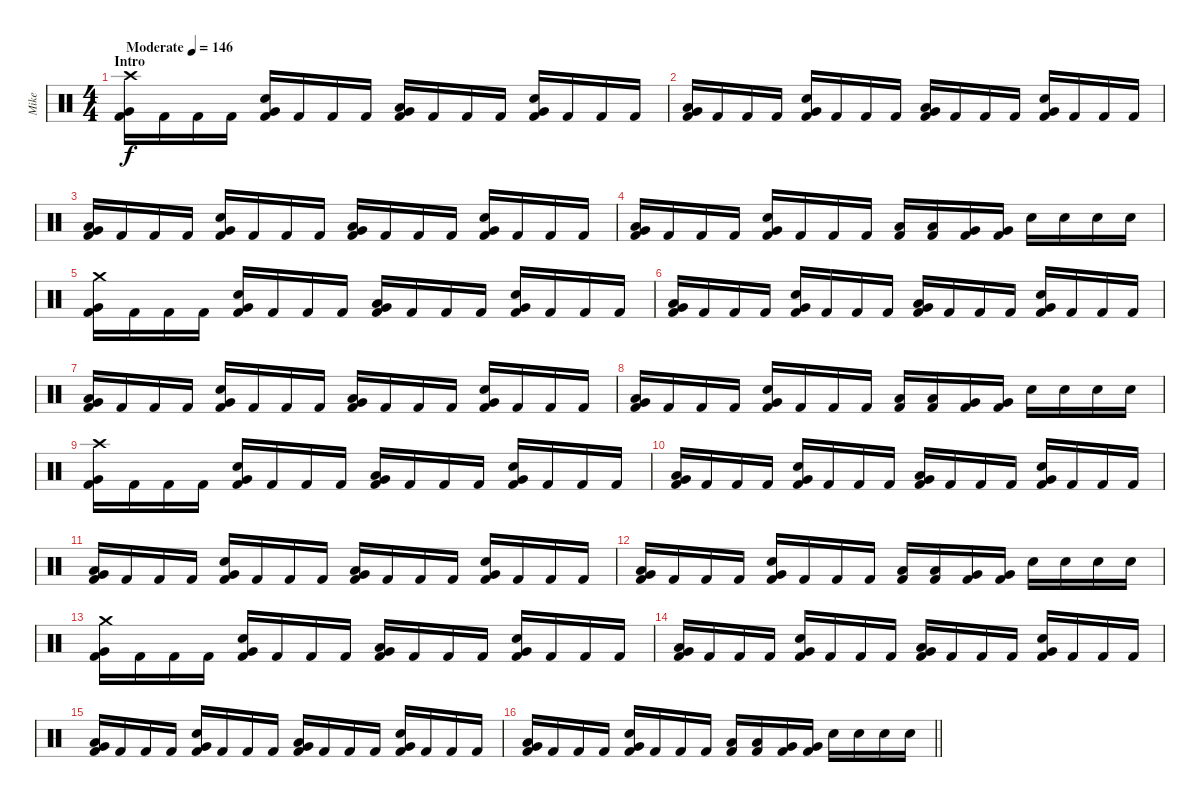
\track ("Mike" "Mike") {instrument percussion}
\staff {score}
\articulation defaults
\ts (4 4)
\section ("" "Intro")
\tempo (146 "Moderate")
\clef neutral
\ks c
("Crash high (hit)" "Very Low Tom (hit)" "Kick (hit) 2").16{dy f} "Kick (hit) 2".16 "Kick (hit) 2".16 "Kick (hit) 2".16 ("Snare (hit) 2" "Very Low Tom (hit)" "Kick (hit) 2").16 "Kick (hit) 2".16 "Kick (hit) 2".16 "Kick (hit) 2".16 ("Low Tom (hit)" "Very Low Tom (hit)" "Kick (hit) 2").16 "Kick (hit) 2".16 "Kick (hit) 2".16 "Kick (hit) 2".16 ("Snare (hit) 2" "Very Low Tom (hit)" "Kick (hit) 2").16 "Kick (hit) 2".16 "Kick (hit) 2".16 "Kick (hit) 2".16 |
("Low Tom (hit)" "Very Low Tom (hit)" "Kick (hit) 2").16 "Kick (hit) 2".16 "Kick (hit) 2".16 "Kick (hit) 2".16 ("Snare (hit) 2" "Very Low Tom (hit)" "Kick (hit) 2").16 "Kick (hit) 2".16 "Kick (hit) 2".16 "Kick (hit) 2".16 ("Low Tom (hit)" "Very Low Tom (hit)" "Kick (hit) 2").16 "Kick (hit) 2".16 "Kick (hit) 2".16 "Kick (hit) 2".16 ("Snare (hit) 2" "Very Low Tom (hit)" "Kick (hit) 2").16 "Kick (hit) 2".16 "Kick (hit) 2".16 "Kick (hit) 2".16 |
("Low Tom (hit)" "Very Low Tom (hit)" "Kick (hit) 2").16 "Kick (hit) 2".16 "Kick (hit) 2".16 "Kick (hit) 2".16 ("Snare (hit) 2" "Very Low Tom (hit)" "Kick (hit) 2").16 "Kick (hit) 2".16 "Kick (hit) 2".16 "Kick (hit) 2".16 ("Low Tom (hit)" "Very Low Tom (hit)" "Kick (hit) 2").16 "Kick (hit) 2".16 "Kick (hit) 2".16 "Kick (hit) 2".16 ("Snare (hit) 2" "Very Low Tom (hit)" "Kick (hit) 2").16 "Kick (hit) 2".16 "Kick (hit) 2".16 "Kick (hit) 2".16 |
("Low Tom (hit)" "Very Low Tom (hit)" "Kick (hit) 2").16 "Kick (hit) 2".16 "Kick (hit) 2".16 "Kick (hit) 2".16 ("Snare (hit) 2" "Very Low Tom (hit)" "Kick (hit) 2").16 "Kick (hit) 2".16 "Kick (hit) 2".16 "Kick (hit) 2".16 ("Low Tom (hit)" "Kick (hit) 2").16 ("Low Tom (hit)" "Kick (hit) 2").16 ("Very Low Tom (hit)" "Kick (hit) 2").16 ("Very Low Tom (hit)" "Kick (hit) 2").16 "Snare (hit) 2".16 "Snare (hit) 2".16 "Snare (hit) 2".16 "Snare (hit) 2".16 |
("Crash medium (hit)" "Very Low Tom (hit)" "Kick (hit) 2").16 "Kick (hit) 2".16 "Kick (hit) 2".16 "Kick (hit) 2".16 ("Snare (hit) 2" "Very Low Tom (hit)" "Kick (hit) 2").16 "Kick (hit) 2".16 "Kick (hit) 2".16 "Kick (hit) 2".16 ("Low Tom (hit)" "Very Low Tom (hit)" "Kick (hit) 2").16 "Kick (hit) 2".16 "Kick (hit) 2".16 "Kick (hit) 2".16 ("Snare (hit) 2" "Very Low Tom (hit)" "Kick (hit) 2").16 "Kick (hit) 2".16 "Kick (hit) 2".16 "Kick (hit) 2".16 |
("Low Tom (hit)" "Very Low Tom (hit)" "Kick (hit) 2").16 "Kick (hit) 2".16 "Kick (hit) 2".16 "Kick (hit) 2".16 ("Snare (hit) 2" "Very Low Tom (hit)" "Kick (hit) 2").16 "Kick (hit) 2".16 "Kick (hit) 2".16 "Kick (hit) 2".16 ("Low Tom (hit)" "Very Low Tom (hit)" "Kick (hit) 2").16 "Kick (hit) 2".16 "Kick (hit) 2".16 "Kick (hit) 2".16 ("Snare (hit) 2" "Very Low Tom (hit)" "Kick (hit) 2").16 "Kick (hit) 2".16 "Kick (hit) 2".16 "Kick (hit) 2".16 |
("Low Tom (hit)" "Very Low Tom (hit)" "Kick (hit) 2").16 "Kick (hit) 2".16 "Kick (hit) 2".16 "Kick (hit) 2".16 ("Snare (hit) 2" "Very Low Tom (hit)" "Kick (hit) 2").16 "Kick (hit) 2".16 "Kick (hit) 2".16 "Kick (hit) 2".16 ("Low Tom (hit)" "Very Low Tom (hit)" "Kick (hit) 2").16 "Kick (hit) 2".16 "Kick (hit) 2".16 "Kick (hit) 2".16 ("Snare (hit) 2" "Very Low Tom (hit)" "Kick (hit) 2").16 "Kick (hit) 2".16 "Kick (hit) 2".16 "Kick (hit) 2".16 |
("Low Tom (hit)" "Very Low Tom (hit)" "Kick (hit) 2").16 "Kick (hit) 2".16 "Kick (hit) 2".16 "Kick (hit) 2".16 ("Snare (hit) 2" "Very Low Tom (hit)" "Kick (hit) 2").16 "Kick (hit) 2".16 "Kick (hit) 2".16 "Kick (hit) 2".16 ("Low Tom (hit)" "Kick (hit) 2").16 ("Low Tom (hit)" "Kick (hit) 2").16 ("Very Low Tom (hit)" "Kick (hit) 2").16 ("Very Low Tom (hit)" "Kick (hit) 2").16 "Snare (hit) 2".16 "Snare (hit) 2".16 "Snare (hit) 2".16 "Snare (hit) 2".16 |
("Crash high (hit)" "Very Low Tom (hit)" "Kick (hit) 2").16 "Kick (hit) 2".16 "Kick (hit) 2".16 "Kick (hit) 2".16 ("Snare (hit) 2" "Very Low Tom (hit)" "Kick (hit) 2").16 "Kick (hit) 2".16 "Kick (hit) 2".16 "Kick (hit) 2".16 ("Low Tom (hit)" "Very Low Tom (hit)" "Kick (hit) 2").16 "Kick (hit) 2".16 "Kick (hit) 2".16 "Kick (hit) 2".16 ("Snare (hit) 2" "Very Low Tom (hit)" "Kick (hit) 2").16 "Kick (hit) 2".16 "Kick (hit) 2".16 "Kick (hit) 2".16 |
("Low Tom (hit)" "Very Low Tom (hit)" "Kick (hit) 2").16 "Kick (hit) 2".16 "Kick (hit) 2".16 "Kick (hit) 2".16 ("Snare (hit) 2" "Very Low Tom (hit)" "Kick (hit) 2").16 "Kick (hit) 2".16 "Kick (hit) 2".16 "Kick (hit) 2".16 ("Low Tom (hit)" "Very Low Tom (hit)" "Kick (hit) 2").16 "Kick (hit) 2".16 "Kick (hit) 2".16 "Kick (hit) 2".16 ("Snare (hit) 2" "Very Low Tom (hit)" "Kick (hit) 2").16 "Kick (hit) 2".16 "Kick (hit) 2".16 "Kick (hit) 2".16 |
("Low Tom (hit)" "Very Low Tom (hit)" "Kick (hit) 2").16 "Kick (hit) 2".16 "Kick (hit) 2".16 "Kick (hit) 2".16 ("Snare (hit) 2" "Very Low Tom (hit)" "Kick (hit) 2").16 "Kick (hit) 2".16 "Kick (hit) 2".16 "Kick (hit) 2".16 ("Low Tom (hit)" "Very Low Tom (hit)" "Kick (hit) 2").16 "Kick (hit) 2".16 "Kick (hit) 2".16 "Kick (hit) 2".16 ("Snare (hit) 2" "Very Low Tom (hit)" "Kick (hit) 2").16 "Kick (hit) 2".16 "Kick (hit) 2".16 "Kick (hit) 2".16 |
("Low Tom (hit)" "Very Low Tom (hit)" "Kick (hit) 2").16 "Kick (hit) 2".16 "Kick (hit) 2".16 "Kick (hit) 2".16 ("Snare (hit) 2" "Very Low Tom (hit)" "Kick (hit) 2").16 "Kick (hit) 2".16 "Kick (hit) 2".16 "Kick (hit) 2".16 ("Low Tom (hit)" "Kick (hit) 2").16 ("Low Tom (hit)" "Kick (hit) 2").16 ("Very Low Tom (hit)" "Kick (hit) 2").16 ("Very Low Tom (hit)" "Kick (hit) 2").16 "Snare (hit) 2".16 "Snare (hit) 2".16 "Snare (hit) 2".16 "Snare (hit) 2".16 |
("Crash medium (hit)" "Very Low Tom (hit)" "Kick (hit) 2").16 "Kick (hit) 2".16 "Kick (hit) 2".16 "Kick (hit) 2".16 ("Snare (hit) 2" "Very Low Tom (hit)" "Kick (hit) 2").16 "Kick (hit) 2".16 "Kick (hit) 2".16 "Kick (hit) 2".16 ("Low Tom (hit)" "Very Low Tom (hit)" "Kick (hit) 2").16 "Kick (hit) 2".16 "Kick (hit) 2".16 "Kick (hit) 2".16 ("Snare (hit) 2" "Very Low Tom (hit)" "Kick (hit) 2").16 "Kick (hit) 2".16 "Kick (hit) 2".16 "Kick (hit) 2".16 |
("Low Tom (hit)" "Very Low Tom (hit)" "Kick (hit) 2").16 "Kick (hit) 2".16 "Kick (hit) 2".16 "Kick (hit) 2".16 ("Snare (hit) 2" "Very Low Tom (hit)" "Kick (hit) 2").16 "Kick (hit) 2".16 "Kick (hit) 2".16 "Kick (hit) 2".16 ("Low Tom (hit)" "Very Low Tom (hit)" "Kick (hit) 2").16 "Kick (hit) 2".16 "Kick (hit) 2".16 "Kick (hit) 2".16 ("Snare (hit) 2" "Very Low Tom (hit)" "Kick (hit) 2").16 "Kick (hit) 2".16 "Kick (hit) 2".16 "Kick (hit) 2".16 |
("Low Tom (hit)" "Very Low Tom (hit)" "Kick (hit) 2").16 "Kick (hit) 2".16 "Kick (hit) 2".16 "Kick (hit) 2".16 ("Snare (hit) 2" "Very Low Tom (hit)" "Kick (hit) 2").16 "Kick (hit) 2".16 "Kick (hit) 2".16 "Kick (hit) 2".16 ("Low Tom (hit)" "Very Low Tom (hit)" "Kick (hit) 2").16 "Kick (hit) 2".16 "Kick (hit) 2".16 "Kick (hit) 2".16 ("Snare (hit) 2" "Very Low Tom (hit)" "Kick (hit) 2").16 "Kick (hit) 2".16 "Kick (hit) 2".16 "Kick (hit) 2".16 |
\barLineRight lightlight
("Low Tom (hit)" "Very Low Tom (hit)" "Kick (hit) 2").16 "Kick (hit) 2".16 "Kick (hit) 2".16 "Kick (hit) 2".16 ("Snare (hit) 2" "Very Low Tom (hit)" "Kick (hit) 2").16 "Kick (hit) 2".16 "Kick (hit) 2".16 "Kick (hit) 2".16 ("Low Tom (hit)" "Kick (hit) 2").16 ("Low Tom (hit)" "Kick (hit) 2").16 ("Very Low Tom (hit)" "Kick (hit) 2").16 ("Very Low Tom (hit)" "Kick (hit) 2").16 "Snare (hit) 2".16 "Snare (hit) 2".16 "Snare (hit) 2".16 "Snare (hit) 2".16
